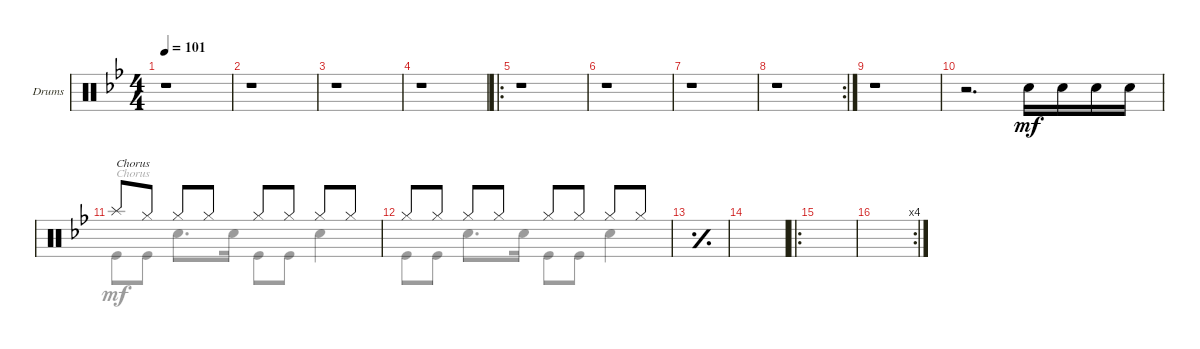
\defaultSystemsLayout 4
\bracketExtendMode groupsimilarinstruments
\firstSystemTrackNameOrientation horizontal
\otherSystemsTrackNameOrientation horizontal
\track ("Drumkit" "Drums") {instrument percussion}
\staff {score}
\articulation defaults
\voice
\ts (4 4)
\tempo 101
\clef neutral
\scale
0.515152
\ks gminor
r.1{dy mf} |
\scale
0.242424 r.1 |
\scale
0.242424 r.1 |
\scale
0.311111 r.1 |
\ro
\scale
0.377778 r.1 |
\scale
0.311111 r.1 |
\scale
0.321839 r.1 |
\rc 2
\scale
0.356322 r.1 |
\scale
0.321839 r.1 |
r.2{d} "Snare (hit) 2".16 "Snare (hit) 2".16 "Snare (hit) 2".16 "Snare (hit) 2".16 |
"Splash (hit)".8{txt "Chorus"} "Hi-Hat (closed)".8 "Hi-Hat (closed)".8 "Hi-Hat (closed)".8 "Hi-Hat (closed)".8 "Hi-Hat (closed)".8 "Hi-Hat (closed)".8 "Hi-Hat (closed)".8 |
"Hi-Hat (closed)".8 "Hi-Hat (closed)".8 "Hi-Hat (closed)".8 "Hi-Hat (closed)".8 "Hi-Hat (closed)".8 "Hi-Hat (closed)".8 "Hi-Hat (closed)".8 "Hi-Hat (closed)".8 |
\simile simple
|
|
\ro
|
\rc 4
\voice
\clef neutral
\ottava regular
\simile none
\scale
0.515152
\ks gminor
|
\scale
0.242424 |
\scale
0.242424 |
\scale
0.311111 |
\scale
0.377778 |
\scale
0.311111 |
\scale
0.321839 |
\scale
0.356322 |
\scale
0.321839 |
|
"Kick (hit)".8{txt "Chorus"} "Kick (hit)".8 "Snare (hit) 2".8{d} "Snare (hit) 2".16 "Kick (hit)".8 "Kick (hit)".8 "Snare (hit) 2".4 |
"Kick (hit)".8 "Kick (hit)".8 "Snare (hit) 2".8{d} "Snare (hit) 2".16 "Kick (hit)".8 "Kick (hit)".8 "Snare (hit) 2".4 |
\simile simple
|
|
|
